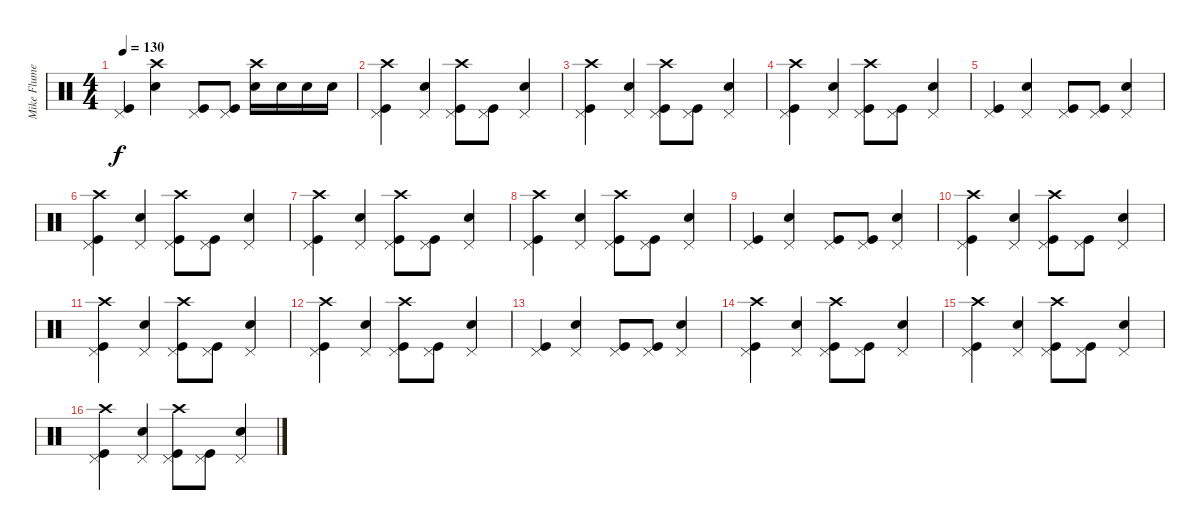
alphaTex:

\track ("Mike Flumee" "Mike Flume") {instrument percussion}
\staff {score}
\articulation defaults
\ts (4 4)
\tempo 130
\clef neutral
\ks c
("Pedal Hi-Hat (hit)" "Kick (hit)").4{dy f} ("Crash high (hit)" "Electric Snare (hit)").4 ("Pedal Hi-Hat (hit)" "Kick (hit)").8 ("Pedal Hi-Hat (hit)" "Kick (hit)").8 ("Crash high (hit)" "Electric Snare (hit)").16 "Electric Snare (hit)".16 "Electric Snare (hit)".16 "Electric Snare (hit)".16 |
("Crash high (hit)" "Pedal Hi-Hat (hit)" "Kick (hit)").4 ("Pedal Hi-Hat (hit)" "Electric Snare (hit)").4 ("Crash high (hit)" "Pedal Hi-Hat (hit)" "Kick (hit)").8 ("Pedal Hi-Hat (hit)" "Kick (hit)").8 ("Pedal Hi-Hat (hit)" "Electric Snare (hit)").4 |
("Crash high (hit)" "Pedal Hi-Hat (hit)" "Kick (hit)").4 ("Pedal Hi-Hat (hit)" "Electric Snare (hit)").4 ("Crash high (hit)" "Pedal Hi-Hat (hit)" "Kick (hit)").8 ("Pedal Hi-Hat (hit)" "Kick (hit)").8 ("Pedal Hi-Hat (hit)" "Electric Snare (hit)").4 |
("Crash high (hit)" "Pedal Hi-Hat (hit)" "Kick (hit)").4 ("Pedal Hi-Hat (hit)" "Electric Snare (hit)").4 ("Crash high (hit)" "Pedal Hi-Hat (hit)" "Kick (hit)").8 ("Pedal Hi-Hat (hit)" "Kick (hit)").8 ("Pedal Hi-Hat (hit)" "Electric Snare (hit)").4 |
("Pedal Hi-Hat (hit)" "Kick (hit)").4 ("Pedal Hi-Hat (hit)" "Electric Snare (hit)").4 ("Pedal Hi-Hat (hit)" "Kick (hit)").8 ("Pedal Hi-Hat (hit)" "Kick (hit)").8 ("Pedal Hi-Hat (hit)" "Electric Snare (hit)").4 |
("Crash high (hit)" "Pedal Hi-Hat (hit)" "Kick (hit)").4 ("Pedal Hi-Hat (hit)" "Electric Snare (hit)").4 ("Crash high (hit)" "Pedal Hi-Hat (hit)" "Kick (hit)").8 ("Pedal Hi-Hat (hit)" "Kick (hit)").8 ("Pedal Hi-Hat (hit)" "Electric Snare (hit)").4 |
("Crash high (hit)" "Pedal Hi-Hat (hit)" "Kick (hit)").4 ("Pedal Hi-Hat (hit)" "Electric Snare (hit)").4 ("Crash high (hit)" "Pedal Hi-Hat (hit)" "Kick (hit)").8 ("Pedal Hi-Hat (hit)" "Kick (hit)").8 ("Pedal Hi-Hat (hit)" "Electric Snare (hit)").4 |
("Crash high (hit)" "Pedal Hi-Hat (hit)" "Kick (hit)").4 ("Pedal Hi-Hat (hit)" "Electric Snare (hit)").4 ("Crash high (hit)" "Pedal Hi-Hat (hit)" "Kick (hit)").8 ("Pedal Hi-Hat (hit)" "Kick (hit)").8 ("Pedal Hi-Hat (hit)" "Electric Snare (hit)").4 |
("Pedal Hi-Hat (hit)" "Kick (hit)").4 ("Pedal Hi-Hat (hit)" "Electric Snare (hit)").4 ("Pedal Hi-Hat (hit)" "Kick (hit)").8 ("Pedal Hi-Hat (hit)" "Kick (hit)").8 ("Pedal Hi-Hat (hit)" "Electric Snare (hit)").4 |
("Crash high (hit)" "Pedal Hi-Hat (hit)" "Kick (hit)").4 ("Pedal Hi-Hat (hit)" "Electric Snare (hit)").4 ("Crash high (hit)" "Pedal Hi-Hat (hit)" "Kick (hit)").8 ("Pedal Hi-Hat (hit)" "Kick (hit)").8 ("Pedal Hi-Hat (hit)" "Electric Snare (hit)").4 |
("Crash high (hit)" "Pedal Hi-Hat (hit)" "Kick (hit)").4 ("Pedal Hi-Hat (hit)" "Electric Snare (hit)").4 ("Crash high (hit)" "Pedal Hi-Hat (hit)" "Kick (hit)").8 ("Pedal Hi-Hat (hit)" "Kick (hit)").8 ("Pedal Hi-Hat (hit)" "Electric Snare (hit)").4 |
("Crash high (hit)" "Pedal Hi-Hat (hit)" "Kick (hit)").4 ("Pedal Hi-Hat (hit)" "Electric Snare (hit)").4 ("Crash high (hit)" "Pedal Hi-Hat (hit)" "Kick (hit)").8 ("Pedal Hi-Hat (hit)" "Kick (hit)").8 ("Pedal Hi-Hat (hit)" "Electric Snare (hit)").4 |
("Pedal Hi-Hat (hit)" "Kick (hit)").4 ("Pedal Hi-Hat (hit)" "Electric Snare (hit)").4 ("Pedal Hi-Hat (hit)" "Kick (hit)").8 ("Pedal Hi-Hat (hit)" "Kick (hit)").8 ("Pedal Hi-Hat (hit)" "Electric Snare (hit)").4 |
("Crash high (hit)" "Pedal Hi-Hat (hit)" "Kick (hit)").4 ("Pedal Hi-Hat (hit)" "Electric Snare (hit)").4 ("Crash high (hit)" "Pedal Hi-Hat (hit)" "Kick (hit)").8 ("Pedal Hi-Hat (hit)" "Kick (hit)").8 ("Pedal Hi-Hat (hit)" "Electric Snare (hit)").4 |
("Crash high (hit)" "Pedal Hi-Hat (hit)" "Kick (hit)").4 ("Pedal Hi-Hat (hit)" "Electric Snare (hit)").4 ("Crash high (hit)" "Pedal Hi-Hat (hit)" "Kick (hit)").8 ("Pedal Hi-Hat (hit)" "Kick (hit)").8 ("Pedal Hi-Hat (hit)" "Electric Snare (hit)").4 |
("Crash high (hit)" "Pedal Hi-Hat (hit)" "Kick (hit)").4 ("Pedal Hi-Hat (hit)" "Electric Snare (hit)").4 ("Crash high (hit)" "Pedal Hi-Hat (hit)" "Kick (hit)").8 ("Pedal Hi-Hat (hit)" "Kick (hit)").8 ("Pedal Hi-Hat (hit)" "Electric Snare (hit)").4
